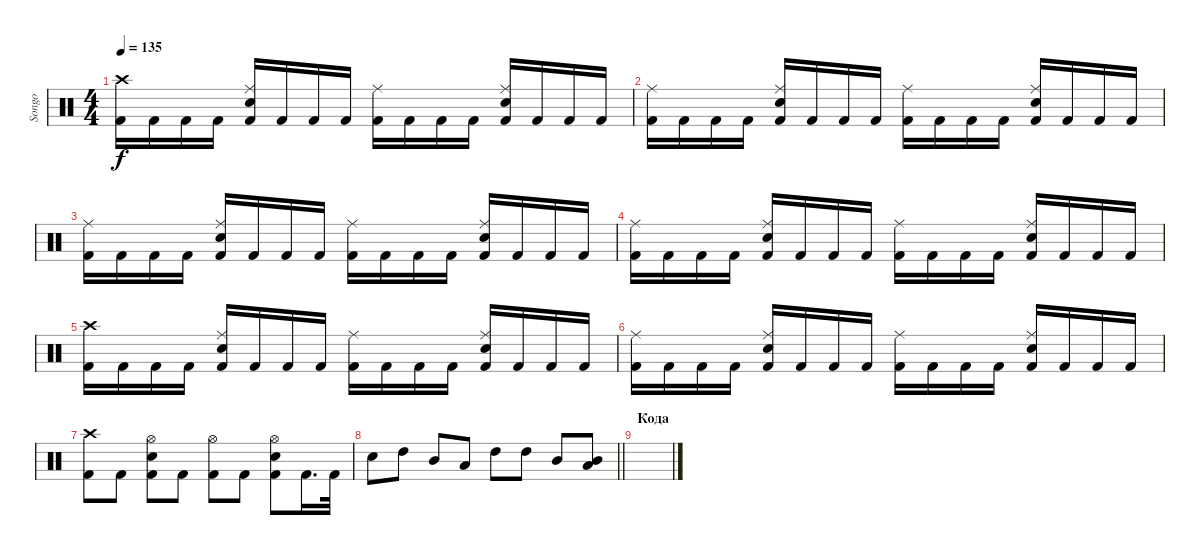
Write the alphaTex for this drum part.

\track ("Songo" "Songo") {instrument percussion}
\staff {score}
\articulation defaults
\ts (4 4)
\tempo 135
\clef neutral
\ks c
("Crash high (hit)" "Kick (hit) 2").16{dy f} "Kick (hit) 2".16 "Kick (hit) 2".16 "Kick (hit) 2".16 ("Ride (middle)" "Snare (hit) 2" "Kick (hit) 2").16 "Kick (hit) 2".16 "Kick (hit) 2".16 "Kick (hit) 2".16 ("Ride (middle)" "Kick (hit) 2").16 "Kick (hit) 2".16 "Kick (hit) 2".16 "Kick (hit) 2".16 ("Ride (middle)" "Snare (hit) 2" "Kick (hit) 2").16 "Kick (hit) 2".16 "Kick (hit) 2".16 "Kick (hit) 2".16 |
("Ride (middle)" "Kick (hit) 2").16 "Kick (hit) 2".16 "Kick (hit) 2".16 "Kick (hit) 2".16 ("Ride (middle)" "Snare (hit) 2" "Kick (hit) 2").16 "Kick (hit) 2".16 "Kick (hit) 2".16 "Kick (hit) 2".16 ("Ride (middle)" "Kick (hit) 2").16 "Kick (hit) 2".16 "Kick (hit) 2".16 "Kick (hit) 2".16 ("Ride (middle)" "Snare (hit) 2" "Kick (hit) 2").16 "Kick (hit) 2".16 "Kick (hit) 2".16 "Kick (hit) 2".16 |
("Ride (middle)" "Kick (hit) 2").16 "Kick (hit) 2".16 "Kick (hit) 2".16 "Kick (hit) 2".16 ("Ride (middle)" "Snare (hit) 2" "Kick (hit) 2").16 "Kick (hit) 2".16 "Kick (hit) 2".16 "Kick (hit) 2".16 ("Ride (middle)" "Kick (hit) 2").16 "Kick (hit) 2".16 "Kick (hit) 2".16 "Kick (hit) 2".16 ("Ride (middle)" "Snare (hit) 2" "Kick (hit) 2").16 "Kick (hit) 2".16 "Kick (hit) 2".16 "Kick (hit) 2".16 |
("Ride (middle)" "Kick (hit) 2").16 "Kick (hit) 2".16 "Kick (hit) 2".16 "Kick (hit) 2".16 ("Ride (middle)" "Snare (hit) 2" "Kick (hit) 2").16 "Kick (hit) 2".16 "Kick (hit) 2".16 "Kick (hit) 2".16 ("Ride (middle)" "Kick (hit) 2").16 "Kick (hit) 2".16 "Kick (hit) 2".16 "Kick (hit) 2".16 ("Ride (middle)" "Snare (hit) 2" "Kick (hit) 2").16 "Kick (hit) 2".16 "Kick (hit) 2".16 "Kick (hit) 2".16 |
("Crash high (hit)" "Kick (hit) 2").16 "Kick (hit) 2".16 "Kick (hit) 2".16 "Kick (hit) 2".16 ("Ride (middle)" "Snare (hit) 2" "Kick (hit) 2").16 "Kick (hit) 2".16 "Kick (hit) 2".16 "Kick (hit) 2".16 ("Ride (middle)" "Kick (hit) 2").16 "Kick (hit) 2".16 "Kick (hit) 2".16 "Kick (hit) 2".16 ("Ride (middle)" "Snare (hit) 2" "Kick (hit) 2").16 "Kick (hit) 2".16 "Kick (hit) 2".16 "Kick (hit) 2".16 |
("Ride (middle)" "Kick (hit) 2").16 "Kick (hit) 2".16 "Kick (hit) 2".16 "Kick (hit) 2".16 ("Ride (middle)" "Snare (hit) 2" "Kick (hit) 2").16 "Kick (hit) 2".16 "Kick (hit) 2".16 "Kick (hit) 2".16 ("Ride (middle)" "Kick (hit) 2").16 "Kick (hit) 2".16 "Kick (hit) 2".16 "Kick (hit) 2".16 ("Ride (middle)" "Snare (hit) 2" "Kick (hit) 2").16 "Kick (hit) 2".16 "Kick (hit) 2".16 "Kick (hit) 2".16 |
("Crash high (hit)" "Kick (hit) 2").8 "Kick (hit) 2".8 ("Hi-Hat (open)" "Snare (hit) 2" "Kick (hit) 2").8 "Kick (hit) 2".8 ("Hi-Hat (open)" "Kick (hit) 2").8 "Kick (hit) 2".8 ("Hi-Hat (open)" "Snare (hit) 2" "Kick (hit) 2").8 "Kick (hit) 2".16{d} "Kick (hit) 2".32 |
\barLineRight lightlight "Snare (hit) 2".8 "High Tom (hit)".8 "Mid Tom (hit)".8 "Low Tom (hit)".8 "High Tom (hit)".8 "High Tom (hit)".8 "Mid Tom (hit)".8
("Mid Tom (hit)" "Low Tom (hit)").8 |
\section ("" "Кода")
